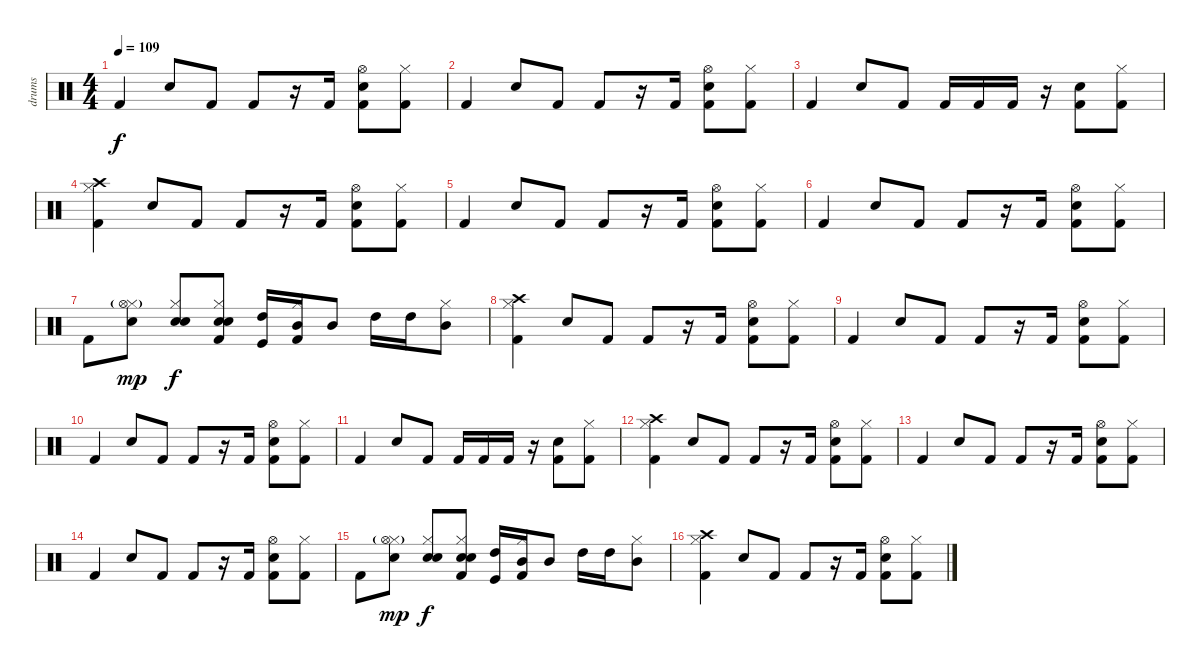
\track ("drums" "drums") {instrument percussion}
\staff {score}
\articulation defaults
\ts (4 4)
\tempo 109
\clef neutral
\ks c "Kick (hit) 2".4{dy f} "Snare (hit) 2".8 "Kick (hit) 2".8 "Kick (hit) 2".8
r.16 "Kick (hit) 2".16 ("Snare (hit) 2" "Kick (hit) 2" "Hi-Hat (open)").8 ("Hi-Hat (closed)" "Kick (hit) 2").8 |
"Kick (hit) 2".4 "Snare (hit) 2".8 "Kick (hit) 2".8 "Kick (hit) 2".8 r.16 "Kick (hit) 2".16 ("Snare (hit) 2" "Kick (hit) 2" "Hi-Hat (open)").8 ("Hi-Hat (closed)" "Kick (hit) 2").8 |
"Kick (hit) 2".4 "Snare (hit) 2".8 "Kick (hit) 2".8 "Kick (hit) 2".16 "Kick (hit) 2".16 "Kick (hit) 2".16 r.16 ("Snare (hit) 2" "Kick (hit) 2").8 ("Hi-Hat (closed)" "Kick (hit) 2").8 |
("Hi-Hat (closed)" "Kick (hit) 2" "Crash high (hit)").4 "Snare (hit) 2".8 "Kick (hit) 2".8 "Kick (hit) 2".8 r.16 "Kick (hit) 2".16 ("Snare (hit) 2" "Kick (hit) 2" "Hi-Hat (open)").8 ("Hi-Hat (closed)" "Kick (hit) 2").8 |
"Kick (hit) 2".4 "Snare (hit) 2".8 "Kick (hit) 2".8 "Kick (hit) 2".8 r.16 "Kick (hit) 2".16 ("Snare (hit) 2" "Kick (hit) 2" "Hi-Hat (open)").8 ("Hi-Hat (closed)" "Kick (hit) 2").8 |
"Kick (hit) 2".4 "Snare (hit) 2".8 "Kick (hit) 2".8 "Kick (hit) 2".8 r.16 "Kick (hit) 2".16 ("Snare (hit) 2" "Kick (hit) 2" "Hi-Hat (open)").8 ("Hi-Hat (closed)" "Kick (hit) 2").8 |
"Kick (hit) 2".8 ("Hi-Hat (closed)" "Hi-Hat (open)"{g} "Snare (hit) 2").8{dy mp} ("Hi-Hat (closed)" "Snare (hit) 2" "Electric Snare (hit)").8{dy f} ("Hi-Hat (closed)" "Kick (hit) 2" "Snare (hit) 2" "Electric Snare (hit)").8 ("Kick (hit)" "High Tom (hit)").16 ("Hi-Hat (closed)" "Kick (hit) 2" "Mid Tom (hit)").16 "Mid Tom (hit)".8 "High Tom (hit)".16 "High Tom (hit)".16 ("Hi-Hat (closed)" "Mid Tom (hit)").8 |
("Hi-Hat (closed)" "Kick (hit) 2" "Crash high (hit)").4 "Snare (hit) 2".8 "Kick (hit) 2".8 "Kick (hit) 2".8 r.16 "Kick (hit) 2".16 ("Snare (hit) 2" "Kick (hit) 2" "Hi-Hat (open)").8 ("Hi-Hat (closed)" "Kick (hit) 2").8 |
"Kick (hit) 2".4 "Snare (hit) 2".8 "Kick (hit) 2".8 "Kick (hit) 2".8 r.16 "Kick (hit) 2".16 ("Snare (hit) 2" "Kick (hit) 2" "Hi-Hat (open)").8 ("Hi-Hat (closed)" "Kick (hit) 2").8 |
"Kick (hit) 2".4 "Snare (hit) 2".8 "Kick (hit) 2".8 "Kick (hit) 2".8 r.16 "Kick (hit) 2".16 ("Snare (hit) 2" "Kick (hit) 2" "Hi-Hat (open)").8 ("Hi-Hat (closed)" "Kick (hit) 2").8 |
"Kick (hit) 2".4 "Snare (hit) 2".8 "Kick (hit) 2".8 "Kick (hit) 2".16 "Kick (hit) 2".16 "Kick (hit) 2".16 r.16 ("Snare (hit) 2" "Kick (hit) 2").8 ("Hi-Hat (closed)" "Kick (hit) 2").8 |
("Hi-Hat (closed)" "Kick (hit) 2" "Crash high (hit)").4 "Snare (hit) 2".8 "Kick (hit) 2".8 "Kick (hit) 2".8 r.16 "Kick (hit) 2".16 ("Snare (hit) 2" "Kick (hit) 2" "Hi-Hat (open)").8 ("Hi-Hat (closed)" "Kick (hit) 2").8 |
"Kick (hit) 2".4 "Snare (hit) 2".8 "Kick (hit) 2".8 "Kick (hit) 2".8 r.16 "Kick (hit) 2".16 ("Snare (hit) 2" "Kick (hit) 2" "Hi-Hat (open)").8 ("Hi-Hat (closed)" "Kick (hit) 2").8 |
"Kick (hit) 2".4 "Snare (hit) 2".8 "Kick (hit) 2".8 "Kick (hit) 2".8 r.16 "Kick (hit) 2".16 ("Snare (hit) 2" "Kick (hit) 2" "Hi-Hat (open)").8 ("Hi-Hat (closed)" "Kick (hit) 2").8 |
"Kick (hit) 2".8 ("Hi-Hat (closed)" "Hi-Hat (open)"{g} "Snare (hit) 2").8{dy mp} ("Hi-Hat (closed)" "Snare (hit) 2" "Electric Snare (hit)").8{dy f} ("Hi-Hat (closed)" "Kick (hit) 2" "Snare (hit) 2" "Electric Snare (hit)").8 ("Kick (hit)" "High Tom (hit)").16 ("Hi-Hat (closed)" "Kick (hit) 2" "Mid Tom (hit)").16 "Mid Tom (hit)".8 "High Tom (hit)".16 "High Tom (hit)".16 ("Hi-Hat (closed)" "Mid Tom (hit)").8 |
("Hi-Hat (closed)" "Kick (hit) 2" "Crash high (hit)").4 "Snare (hit) 2".8 "Kick (hit) 2".8 "Kick (hit) 2".8 r.16 "Kick (hit) 2".16 ("Snare (hit) 2" "Kick (hit) 2" "Hi-Hat (open)").8 ("Hi-Hat (closed)" "Kick (hit) 2").8
